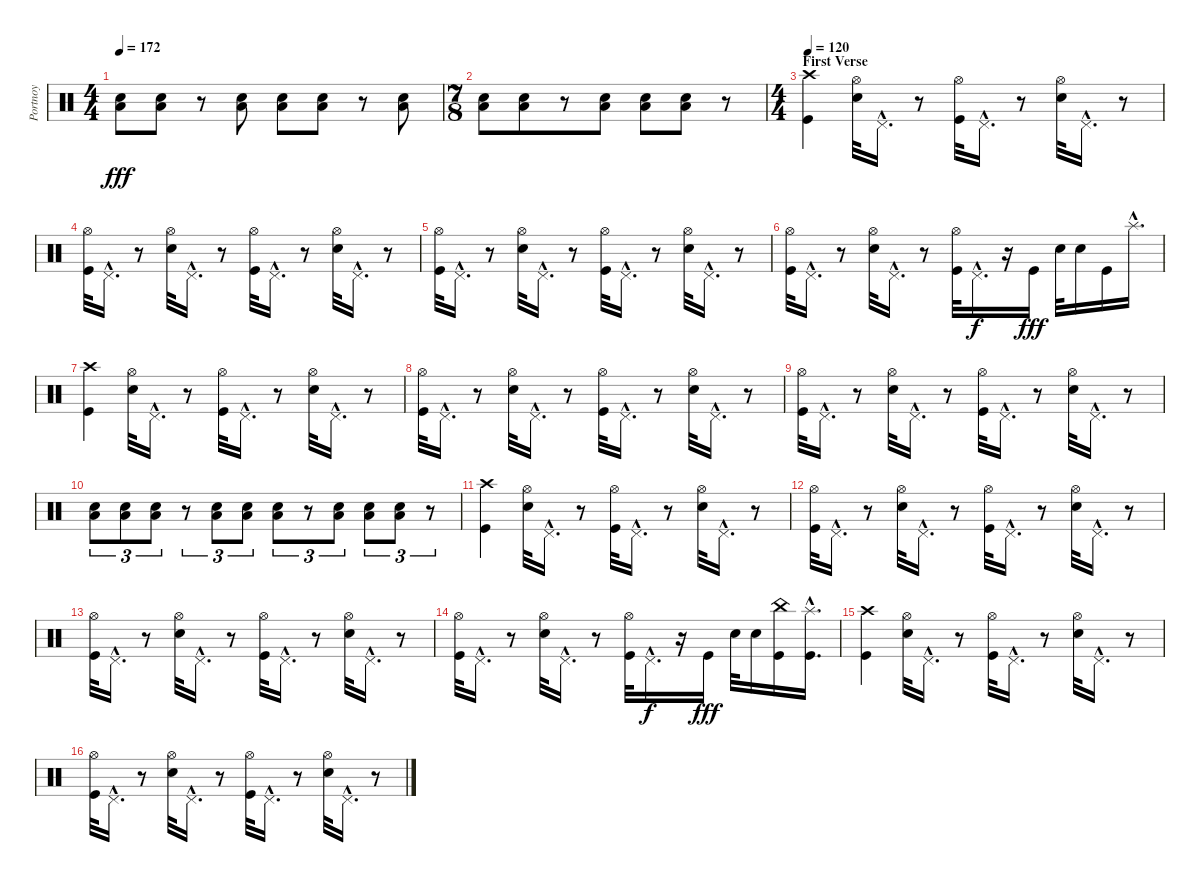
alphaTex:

\track ("Portnoy" "Portnoy") {instrument percussion}
\staff {score}
\articulation defaults
\ts (4 4)
\tempo 172
\clef neutral
\ks c
("Low Floor Tom (hit)" "Snare (hit) 2").8{dy fff} ("Low Floor Tom (hit)" "Snare (hit) 2").8 r.8 ("Low Floor Tom (hit)" "Snare (hit) 2").8 ("Low Floor Tom (hit)" "Snare (hit) 2").8 ("Low Floor Tom (hit)" "Snare (hit) 2").8 r.8 ("Low Floor Tom (hit)" "Snare (hit) 2").8 |
\ts (7 8)
("Low Floor Tom (hit)" "Snare (hit) 2").8 ("Low Floor Tom (hit)" "Snare (hit) 2").8 r.8 ("Low Floor Tom (hit)" "Snare (hit) 2").8 ("Low Floor Tom (hit)" "Snare (hit) 2").8 ("Low Floor Tom (hit)" "Snare (hit) 2").8 r.8 |
\ts (4 4)
\section ("" "First Verse")
\tempo 120
("Crash high (hit)" "Kick (hit)").4 ("Hi-Hat (open)" "Snare (hit) 2").32 "Pedal Hi-Hat (hit)"{hac}.16{d} r.8 ("Hi-Hat (open)" "Kick (hit)").32 "Pedal Hi-Hat (hit)"{hac}.16{d} r.8 ("Hi-Hat (open)" "Snare (hit) 2").32 "Pedal Hi-Hat (hit)"{hac}.16{d} r.8 |
("Hi-Hat (open)" "Kick (hit)").32 "Pedal Hi-Hat (hit)"{hac}.16{d} r.8 ("Hi-Hat (open)" "Snare (hit) 2").32 "Pedal Hi-Hat (hit)"{hac}.16{d} r.8 ("Hi-Hat (open)" "Kick (hit)").32 "Pedal Hi-Hat (hit)"{hac}.16{d} r.8 ("Hi-Hat (open)" "Snare (hit) 2").32 "Pedal Hi-Hat (hit)"{hac}.16{d} r.8 |
("Hi-Hat (open)" "Kick (hit)").32 "Pedal Hi-Hat (hit)"{hac}.16{d} r.8 ("Hi-Hat (open)" "Snare (hit) 2").32 "Pedal Hi-Hat (hit)"{hac}.16{d} r.8 ("Hi-Hat (open)" "Kick (hit)").32 "Pedal Hi-Hat (hit)"{hac}.16{d} r.8 ("Hi-Hat (open)" "Snare (hit) 2").32 "Pedal Hi-Hat (hit)"{hac}.16{d} r.8 |
("Hi-Hat (open)" "Kick (hit)").32 "Pedal Hi-Hat (hit)"{hac}.16{d} r.8 ("Hi-Hat (open)" "Snare (hit) 2").32 "Pedal Hi-Hat (hit)"{hac}.16{d} r.8 ("Hi-Hat (open)" "Kick (hit)").32 "Pedal Hi-Hat (hit)"{hac}.16{d dy f} r.16 "Kick (hit)".16{dy fff} "Snare (hit) 2".32 "Snare (hit) 2".16 "Kick (hit)".16 "Splash (hit)"{hac}.16{d} |
("Crash high (hit)" "Kick (hit)").4 ("Hi-Hat (open)" "Snare (hit) 2").32 "Pedal Hi-Hat (hit)"{hac}.16{d} r.8 ("Hi-Hat (open)" "Kick (hit)").32 "Pedal Hi-Hat (hit)"{hac}.16{d} r.8 ("Hi-Hat (open)" "Snare (hit) 2").32 "Pedal Hi-Hat (hit)"{hac}.16{d} r.8 |
("Hi-Hat (open)" "Kick (hit)").32 "Pedal Hi-Hat (hit)"{hac}.16{d} r.8 ("Hi-Hat (open)" "Snare (hit) 2").32 "Pedal Hi-Hat (hit)"{hac}.16{d} r.8 ("Hi-Hat (open)" "Kick (hit)").32 "Pedal Hi-Hat (hit)"{hac}.16{d} r.8 ("Hi-Hat (open)" "Snare (hit) 2").32 "Pedal Hi-Hat (hit)"{hac}.16{d} r.8 |
("Hi-Hat (open)" "Kick (hit)").32 "Pedal Hi-Hat (hit)"{hac}.16{d} r.8 ("Hi-Hat (open)" "Snare (hit) 2").32 "Pedal Hi-Hat (hit)"{hac}.16{d} r.8 ("Hi-Hat (open)" "Kick (hit)").32 "Pedal Hi-Hat (hit)"{hac}.16{d} r.8 ("Hi-Hat (open)" "Snare (hit) 2").32 "Pedal Hi-Hat (hit)"{hac}.16{d} r.8 |
("Low Floor Tom (hit)" "Snare (hit) 2").8{tu (3 2)} ("Low Floor Tom (hit)" "Snare (hit) 2").8{tu (3 2)} ("Low Floor Tom (hit)" "Snare (hit) 2").8{tu (3 2)} r.8{tu (3 2)} ("Low Floor Tom (hit)" "Snare (hit) 2").8{tu (3 2)} ("Low Floor Tom (hit)" "Snare (hit) 2").8{tu (3 2)} ("Low Floor Tom (hit)" "Snare (hit) 2").8{tu (3 2)} r.8{tu (3 2)} ("Low Floor Tom (hit)" "Snare (hit) 2").8{tu (3 2)} ("Low Floor Tom (hit)" "Snare (hit) 2").8{tu (3 2)} ("Low Floor Tom (hit)" "Snare (hit) 2").8{tu (3 2)} r.8{tu (3 2)} |
("Crash high (hit)" "Kick (hit)").4 ("Hi-Hat (open)" "Snare (hit) 2").32 "Pedal Hi-Hat (hit)"{hac}.16{d} r.8 ("Hi-Hat (open)" "Kick (hit)").32 "Pedal Hi-Hat (hit)"{hac}.16{d} r.8 ("Hi-Hat (open)" "Snare (hit) 2").32 "Pedal Hi-Hat (hit)"{hac}.16{d} r.8 |
("Hi-Hat (open)" "Kick (hit)").32 "Pedal Hi-Hat (hit)"{hac}.16{d} r.8 ("Hi-Hat (open)" "Snare (hit) 2").32 "Pedal Hi-Hat (hit)"{hac}.16{d} r.8 ("Hi-Hat (open)" "Kick (hit)").32 "Pedal Hi-Hat (hit)"{hac}.16{d} r.8 ("Hi-Hat (open)" "Snare (hit) 2").32 "Pedal Hi-Hat (hit)"{hac}.16{d} r.8 |
("Hi-Hat (open)" "Kick (hit)").32 "Pedal Hi-Hat (hit)"{hac}.16{d} r.8 ("Hi-Hat (open)" "Snare (hit) 2").32 "Pedal Hi-Hat (hit)"{hac}.16{d} r.8 ("Hi-Hat (open)" "Kick (hit)").32 "Pedal Hi-Hat (hit)"{hac}.16{d} r.8 ("Hi-Hat (open)" "Snare (hit) 2").32 "Pedal Hi-Hat (hit)"{hac}.16{d} r.8 |
("Hi-Hat (open)" "Kick (hit)").32 "Pedal Hi-Hat (hit)"{hac}.16{d} r.8 ("Hi-Hat (open)" "Snare (hit) 2").32 "Pedal Hi-Hat (hit)"{hac}.16{d} r.8 ("Hi-Hat (open)" "Kick (hit)").32 "Pedal Hi-Hat (hit)"{hac}.16{d dy f} r.16 "Kick (hit)".16{dy fff} "Snare (hit) 2".32 "Snare (hit) 2".16 ("China (hit)" "Kick (hit)").16 ("Splash (hit)"{hac} "Kick (hit)"{hac}).16{d} |
("Crash high (hit)" "Kick (hit)").4 ("Hi-Hat (open)" "Snare (hit) 2").32 "Pedal Hi-Hat (hit)"{hac}.16{d} r.8 ("Hi-Hat (open)" "Kick (hit)").32 "Pedal Hi-Hat (hit)"{hac}.16{d} r.8 ("Hi-Hat (open)" "Snare (hit) 2").32 "Pedal Hi-Hat (hit)"{hac}.16{d} r.8 |
("Hi-Hat (open)" "Kick (hit)").32 "Pedal Hi-Hat (hit)"{hac}.16{d} r.8 ("Hi-Hat (open)" "Snare (hit) 2").32 "Pedal Hi-Hat (hit)"{hac}.16{d} r.8 ("Hi-Hat (open)" "Kick (hit)").32 "Pedal Hi-Hat (hit)"{hac}.16{d} r.8 ("Hi-Hat (open)" "Snare (hit) 2").32 "Pedal Hi-Hat (hit)"{hac}.16{d} r.8
